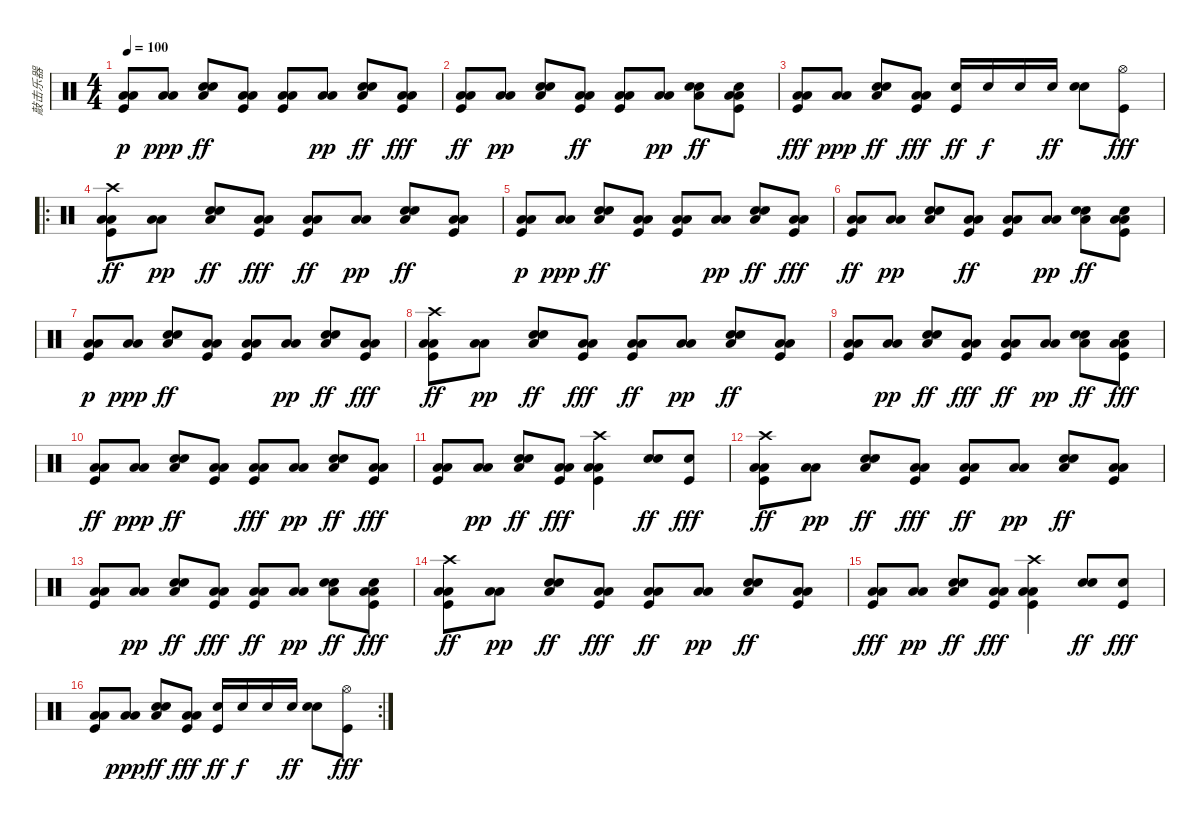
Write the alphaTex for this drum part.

\track ("敲击乐器" "敲击乐器") {instrument percussion}
\staff {score}
\articulation defaults
\ts (4 4)
\tempo 100
\clef neutral
\ks c
("Low Tom (hit)" "Low Floor Tom (hit)" "Kick (hit)").8{dy p} ("Low Floor Tom (hit)" "Low Tom (hit)").8{dy ppp} ("Hand Clap (hit)" "Low Floor Tom (hit)" "Snare (hit) 2").8{dy ff} ("Low Tom (hit)" "Low Floor Tom (hit)" "Kick (hit)").8 ("Low Tom (hit)" "Low Floor Tom (hit)" "Kick (hit)").8 ("Low Tom (hit)" "Low Floor Tom (hit)").8{dy pp} ("Snare (hit) 2" "Low Floor Tom (hit)" "Hand Clap (hit)").8{dy ff} ("Low Tom (hit)" "Low Floor Tom (hit)" "Kick (hit)").8{dy fff} |
("Low Tom (hit)" "Low Floor Tom (hit)" "Kick (hit)").8{dy ff} ("Low Tom (hit)" "Low Floor Tom (hit)").8{dy pp} ("Hand Clap (hit)" "Snare (hit) 2" "Low Floor Tom (hit)").8 ("Low Tom (hit)" "Low Floor Tom (hit)" "Kick (hit)").8{dy ff} ("Low Tom (hit)" "Low Floor Tom (hit)" "Kick (hit)").8 ("Low Floor Tom (hit)" "Low Tom (hit)").8{dy pp} ("Snare (hit) 2" "Low Floor Tom (hit)" "Hand Clap (hit)").8{dy ff} ("Snare (hit) 2" "Low Tom (hit)" "Low Floor Tom (hit)" "Kick (hit)").8 |
("Low Tom (hit)" "Low Floor Tom (hit)" "Kick (hit)").8{dy fff} ("Low Floor Tom (hit)" "Low Tom (hit)").8{dy ppp} ("Low Floor Tom (hit)" "Hand Clap (hit)" "Snare (hit) 2").8{dy ff} ("Low Tom (hit)" "Low Floor Tom (hit)" "Kick (hit)").8{dy fff} ("Kick (hit)" "Snare (hit) 2").16{dy ff} "Snare (hit) 2".16{dy f} "Snare (hit) 2".16 "Snare (hit) 2".16{dy ff} ("Hand Clap (hit)" "Snare (hit) 2").8 ("Kick (hit)" "Hi-Hat (open)").8{dy fff} |
\ro
("Crash high (hit)" "Low Tom (hit)" "Low Floor Tom (hit)" "Kick (hit)").8{dy ff} ("Low Tom (hit)" "Low Floor Tom (hit)").8{dy pp} ("Snare (hit) 2" "Low Floor Tom (hit)" "Hand Clap (hit)").8{dy ff} ("Low Tom (hit)" "Low Floor Tom (hit)" "Kick (hit)").8{dy fff} ("Low Tom (hit)" "Low Floor Tom (hit)" "Kick (hit)").8{dy ff} ("Low Tom (hit)" "Low Floor Tom (hit)").8{dy pp} ("Low Floor Tom (hit)" "Hand Clap (hit)" "Snare (hit) 2").8{dy ff} ("Low Tom (hit)" "Low Floor Tom (hit)" "Kick (hit)").8 |
("Low Tom (hit)" "Low Floor Tom (hit)" "Kick (hit)").8{dy p} ("Low Floor Tom (hit)" "Low Tom (hit)").8{dy ppp} ("Hand Clap (hit)" "Low Floor Tom (hit)" "Snare (hit) 2").8{dy ff} ("Low Tom (hit)" "Low Floor Tom (hit)" "Kick (hit)").8 ("Low Tom (hit)" "Low Floor Tom (hit)" "Kick (hit)").8 ("Low Tom (hit)" "Low Floor Tom (hit)").8{dy pp} ("Snare (hit) 2" "Low Floor Tom (hit)" "Hand Clap (hit)").8{dy ff} ("Low Tom (hit)" "Low Floor Tom (hit)" "Kick (hit)").8{dy fff} |
("Low Tom (hit)" "Low Floor Tom (hit)" "Kick (hit)").8{dy ff} ("Low Tom (hit)" "Low Floor Tom (hit)").8{dy pp} ("Hand Clap (hit)" "Snare (hit) 2" "Low Floor Tom (hit)").8 ("Low Tom (hit)" "Low Floor Tom (hit)" "Kick (hit)").8{dy ff} ("Low Tom (hit)" "Low Floor Tom (hit)" "Kick (hit)").8 ("Low Floor Tom (hit)" "Low Tom (hit)").8{dy pp} ("Snare (hit) 2" "Low Floor Tom (hit)" "Hand Clap (hit)").8{dy ff} ("Snare (hit) 2" "Low Tom (hit)" "Low Floor Tom (hit)" "Kick (hit)").8 |
("Low Tom (hit)" "Low Floor Tom (hit)" "Kick (hit)").8{dy p} ("Low Floor Tom (hit)" "Low Tom (hit)").8{dy ppp} ("Hand Clap (hit)" "Low Floor Tom (hit)" "Snare (hit) 2").8{dy ff} ("Low Tom (hit)" "Low Floor Tom (hit)" "Kick (hit)").8 ("Low Tom (hit)" "Low Floor Tom (hit)" "Kick (hit)").8 ("Low Tom (hit)" "Low Floor Tom (hit)").8{dy pp} ("Snare (hit) 2" "Low Floor Tom (hit)" "Hand Clap (hit)").8{dy ff} ("Low Tom (hit)" "Low Floor Tom (hit)" "Kick (hit)").8{dy fff} |
("Crash high (hit)" "Low Tom (hit)" "Low Floor Tom (hit)" "Kick (hit)").8{dy ff} ("Low Tom (hit)" "Low Floor Tom (hit)").8{dy pp} ("Snare (hit) 2" "Low Floor Tom (hit)" "Hand Clap (hit)").8{dy ff} ("Low Tom (hit)" "Low Floor Tom (hit)" "Kick (hit)").8{dy fff} ("Low Tom (hit)" "Low Floor Tom (hit)" "Kick (hit)").8{dy ff} ("Low Tom (hit)" "Low Floor Tom (hit)").8{dy pp} ("Low Floor Tom (hit)" "Hand Clap (hit)" "Snare (hit) 2").8{dy ff} ("Low Tom (hit)" "Low Floor Tom (hit)" "Kick (hit)").8 |
("Low Tom (hit)" "Low Floor Tom (hit)" "Kick (hit)").8 ("Low Tom (hit)" "Low Floor Tom (hit)").8{dy pp} ("Snare (hit) 2" "Low Floor Tom (hit)" "Hand Clap (hit)").8{dy ff} ("Low Tom (hit)" "Low Floor Tom (hit)" "Kick (hit)").8{dy fff} ("Low Tom (hit)" "Low Floor Tom (hit)" "Kick (hit)").8{dy ff} ("Low Floor Tom (hit)" "Low Tom (hit)").8{dy pp} ("Snare (hit) 2" "Low Floor Tom (hit)" "Hand Clap (hit)").8{dy ff} ("Snare (hit) 2" "Low Tom (hit)" "Low Floor Tom (hit)" "Kick (hit)").8{dy fff} |
("Low Tom (hit)" "Low Floor Tom (hit)" "Kick (hit)").8{dy ff} ("Low Floor Tom (hit)" "Low Tom (hit)").8{dy ppp} ("Low Floor Tom (hit)" "Hand Clap (hit)" "Snare (hit) 2").8{dy ff} ("Low Tom (hit)" "Low Floor Tom (hit)" "Kick (hit)").8 ("Low Tom (hit)" "Low Floor Tom (hit)" "Kick (hit)").8{dy fff} ("Low Tom (hit)" "Low Floor Tom (hit)").8{dy pp} ("Snare (hit) 2" "Low Floor Tom (hit)" "Hand Clap (hit)").8{dy ff} ("Low Tom (hit)" "Low Floor Tom (hit)" "Kick (hit)").8{dy fff} |
("Low Tom (hit)" "Low Floor Tom (hit)" "Kick (hit)").8 ("Low Tom (hit)" "Low Floor Tom (hit)").8{dy pp} ("Snare (hit) 2" "Low Floor Tom (hit)" "Hand Clap (hit)").8{dy ff} ("Low Tom (hit)" "Low Floor Tom (hit)" "Kick (hit)").8{dy fff} ("Low Tom (hit)" "Low Floor Tom (hit)" "Kick (hit)" "Crash high (hit)").4 ("Snare (hit) 2" "Hand Clap (hit)").8{dy ff} ("Snare (hit) 2" "Kick (hit)").8{dy fff} |
("Crash high (hit)" "Low Tom (hit)" "Low Floor Tom (hit)" "Kick (hit)").8{dy ff} ("Low Tom (hit)" "Low Floor Tom (hit)").8{dy pp} ("Snare (hit) 2" "Low Floor Tom (hit)" "Hand Clap (hit)").8{dy ff} ("Low Tom (hit)" "Low Floor Tom (hit)" "Kick (hit)").8{dy fff} ("Low Tom (hit)" "Low Floor Tom (hit)" "Kick (hit)").8{dy ff} ("Low Tom (hit)" "Low Floor Tom (hit)").8{dy pp} ("Low Floor Tom (hit)" "Hand Clap (hit)" "Snare (hit) 2").8{dy ff} ("Low Tom (hit)" "Low Floor Tom (hit)" "Kick (hit)").8 |
("Low Tom (hit)" "Low Floor Tom (hit)" "Kick (hit)").8 ("Low Tom (hit)" "Low Floor Tom (hit)").8{dy pp} ("Snare (hit) 2" "Low Floor Tom (hit)" "Hand Clap (hit)").8{dy ff} ("Low Tom (hit)" "Low Floor Tom (hit)" "Kick (hit)").8{dy fff} ("Low Tom (hit)" "Low Floor Tom (hit)" "Kick (hit)").8{dy ff} ("Low Floor Tom (hit)" "Low Tom (hit)").8{dy pp} ("Snare (hit) 2" "Low Floor Tom (hit)" "Hand Clap (hit)").8{dy ff} ("Snare (hit) 2" "Low Tom (hit)" "Low Floor Tom (hit)" "Kick (hit)").8{dy fff} |
("Crash high (hit)" "Low Tom (hit)" "Low Floor Tom (hit)" "Kick (hit)").8{dy ff} ("Low Tom (hit)" "Low Floor Tom (hit)").8{dy pp} ("Snare (hit) 2" "Low Floor Tom (hit)" "Hand Clap (hit)").8{dy ff} ("Low Tom (hit)" "Low Floor Tom (hit)" "Kick (hit)").8{dy fff} ("Low Tom (hit)" "Low Floor Tom (hit)" "Kick (hit)").8{dy ff} ("Low Tom (hit)" "Low Floor Tom (hit)").8{dy pp} ("Low Floor Tom (hit)" "Hand Clap (hit)" "Snare (hit) 2").8{dy ff} ("Low Tom (hit)" "Low Floor Tom (hit)" "Kick (hit)").8 |
("Low Tom (hit)" "Low Floor Tom (hit)" "Kick (hit)").8{dy fff} ("Low Tom (hit)" "Low Floor Tom (hit)").8{dy pp} ("Snare (hit) 2" "Low Floor Tom (hit)" "Hand Clap (hit)").8{dy ff} ("Low Tom (hit)" "Low Floor Tom (hit)" "Kick (hit)").8{dy fff} ("Low Tom (hit)" "Low Floor Tom (hit)" "Kick (hit)" "Crash high (hit)").4 ("Snare (hit) 2" "Hand Clap (hit)").8{dy ff} ("Snare (hit) 2" "Kick (hit)").8{dy fff} |
\rc 2
("Low Tom (hit)" "Low Floor Tom (hit)" "Kick (hit)").8 ("Low Floor Tom (hit)" "Low Tom (hit)").8{dy ppp} ("Low Floor Tom (hit)" "Hand Clap (hit)" "Snare (hit) 2").8{dy ff} ("Low Tom (hit)" "Low Floor Tom (hit)" "Kick (hit)").8{dy fff} ("Kick (hit)" "Snare (hit) 2").16{dy ff} "Snare (hit) 2".16{dy f} "Snare (hit) 2".16 "Snare (hit) 2".16{dy ff} ("Hand Clap (hit)" "Snare (hit) 2").8 ("Kick (hit)" "Hi-Hat (open)").8{dy fff}
